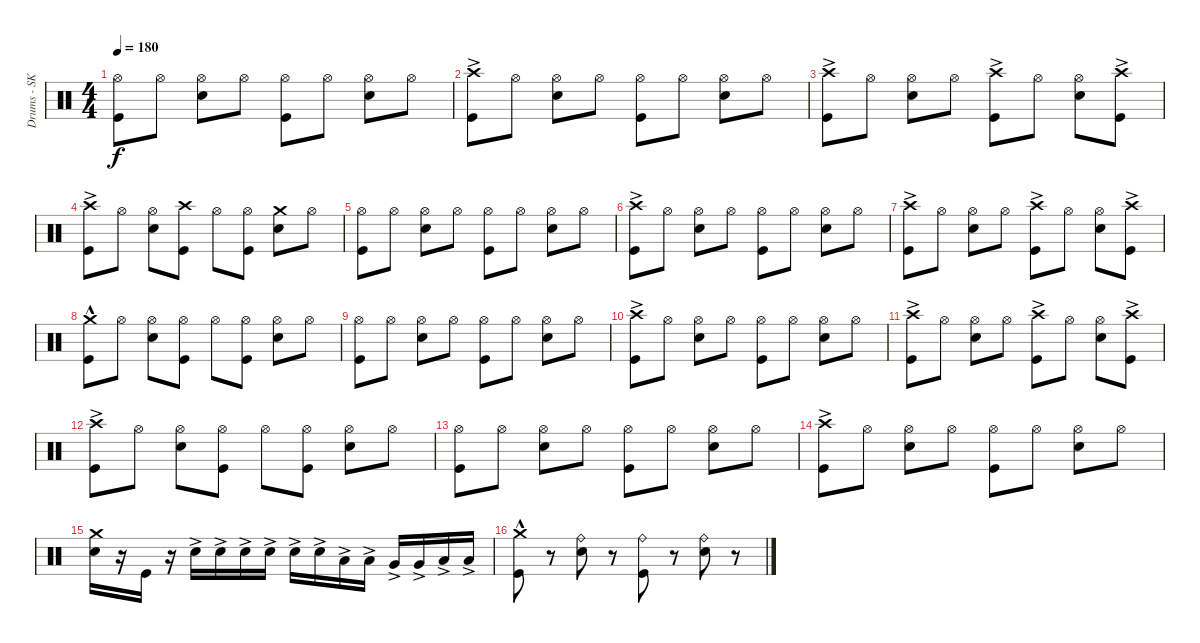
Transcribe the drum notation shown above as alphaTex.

\track ("Drums - SK" "Drums - SK") {instrument percussion}
\staff {score}
\articulation defaults
\ts (4 4)
\tempo 180
\clef neutral
\ks c
("Hi-Hat (open)" "Kick (hit)").8{dy f} "Hi-Hat (open)".8 ("Hi-Hat (open)" "Snare (hit) 2").8 "Hi-Hat (open)".8 ("Hi-Hat (open)" "Kick (hit)").8 "Hi-Hat (open)".8 ("Hi-Hat (open)" "Snare (hit) 2").8 "Hi-Hat (open)".8 |
("Kick (hit)"{ac} "Crash high (hit)"{ac}).8 "Hi-Hat (open)".8 ("Hi-Hat (open)" "Snare (hit) 2").8 "Hi-Hat (open)".8 ("Hi-Hat (open)" "Kick (hit)").8 "Hi-Hat (open)".8 ("Hi-Hat (open)" "Snare (hit) 2").8 "Hi-Hat (open)".8 |
("Kick (hit)"{ac} "Crash high (hit)"{ac}).8 "Hi-Hat (open)".8 ("Hi-Hat (open)" "Snare (hit) 2").8 "Hi-Hat (open)".8 ("Kick (hit)"{ac} "Crash high (hit)"{ac}).8 "Hi-Hat (open)".8 ("Hi-Hat (open)" "Snare (hit) 2").8 ("Kick (hit)"{ac} "Crash high (hit)"{ac}).8 |
("Crash high (hit)"{ac} "Kick (hit)"{ac}).8 "Hi-Hat (open)".8 ("Hi-Hat (open)" "Snare (hit) 2").8 ("Kick (hit)" "Crash high (hit)").8 "Hi-Hat (open)".8 ("Kick (hit)" "Hi-Hat (open)").8 ("Snare (hit) 2" "Crash medium (hit)").8 "Hi-Hat (open)".8 |
("Hi-Hat (open)" "Kick (hit)").8 "Hi-Hat (open)".8 ("Hi-Hat (open)" "Snare (hit) 2").8 "Hi-Hat (open)".8 ("Hi-Hat (open)" "Kick (hit)").8 "Hi-Hat (open)".8 ("Hi-Hat (open)" "Snare (hit) 2").8 "Hi-Hat (open)".8 |
("Kick (hit)"{ac} "Crash high (hit)"{ac}).8 "Hi-Hat (open)".8 ("Hi-Hat (open)" "Snare (hit) 2").8 "Hi-Hat (open)".8 ("Hi-Hat (open)" "Kick (hit)").8 "Hi-Hat (open)".8 ("Hi-Hat (open)" "Snare (hit) 2").8 "Hi-Hat (open)".8 |
("Kick (hit)"{ac} "Crash high (hit)"{ac}).8 "Hi-Hat (open)".8 ("Hi-Hat (open)" "Snare (hit) 2").8 "Hi-Hat (open)".8 ("Kick (hit)"{ac} "Crash high (hit)"{ac}).8 "Hi-Hat (open)".8 ("Hi-Hat (open)" "Snare (hit) 2").8 ("Kick (hit)"{ac} "Crash high (hit)"{ac}).8 |
("Kick (hit)"{hac} "Crash medium (hit)"{hac}).8 "Hi-Hat (open)".8 ("Hi-Hat (open)" "Snare (hit) 2").8 ("Kick (hit)" "Hi-Hat (open)").8 "Hi-Hat (open)".8 ("Kick (hit)" "Hi-Hat (open)").8 ("Hi-Hat (open)" "Snare (hit) 2").8 "Hi-Hat (open)".8 |
("Hi-Hat (open)" "Kick (hit)").8 "Hi-Hat (open)".8 ("Hi-Hat (open)" "Snare (hit) 2").8 "Hi-Hat (open)".8 ("Hi-Hat (open)" "Kick (hit)").8 "Hi-Hat (open)".8 ("Hi-Hat (open)" "Snare (hit) 2").8 "Hi-Hat (open)".8 |
("Kick (hit)"{ac} "Crash high (hit)"{ac}).8 "Hi-Hat (open)".8 ("Hi-Hat (open)" "Snare (hit) 2").8 "Hi-Hat (open)".8 ("Hi-Hat (open)" "Kick (hit)").8 "Hi-Hat (open)".8 ("Hi-Hat (open)" "Snare (hit) 2").8 "Hi-Hat (open)".8 |
("Kick (hit)"{ac} "Crash high (hit)"{ac}).8 "Hi-Hat (open)".8 ("Hi-Hat (open)" "Snare (hit) 2").8 "Hi-Hat (open)".8 ("Kick (hit)"{ac} "Crash high (hit)"{ac}).8 "Hi-Hat (open)".8 ("Hi-Hat (open)" "Snare (hit) 2").8 ("Kick (hit)"{ac} "Crash high (hit)"{ac}).8 |
("Crash high (hit)"{ac} "Kick (hit)"{ac}).8 "Hi-Hat (open)".8 ("Hi-Hat (open)" "Snare (hit) 2").8 ("Kick (hit)" "Hi-Hat (open)").8 "Hi-Hat (open)".8 ("Kick (hit)" "Hi-Hat (open)").8 ("Hi-Hat (open)" "Snare (hit) 2").8 "Hi-Hat (open)".8 |
("Hi-Hat (open)" "Kick (hit)").8 "Hi-Hat (open)".8 ("Hi-Hat (open)" "Snare (hit) 2").8 "Hi-Hat (open)".8 ("Hi-Hat (open)" "Kick (hit)").8 "Hi-Hat (open)".8 ("Hi-Hat (open)" "Snare (hit) 2").8 "Hi-Hat (open)".8 |
("Kick (hit)"{ac} "Crash high (hit)"{ac}).8 "Hi-Hat (open)".8 ("Hi-Hat (open)" "Snare (hit) 2").8 "Hi-Hat (open)".8 ("Hi-Hat (open)" "Kick (hit)").8 "Hi-Hat (open)".8 ("Hi-Hat (open)" "Snare (hit) 2").8 "Hi-Hat (open)".8 |
("Snare (hit) 2" "Crash medium (hit)").16 r.16 "Kick (hit)".16 r.16 "Snare (hit) 2"{ac}.16 "Snare (hit) 2"{ac}.16 "Snare (hit) 2"{ac}.16 "Snare (hit) 2"{ac}.16 "Snare (hit) 2"{ac}.16 "Snare (hit) 2"{ac}.16 "Low Tom (hit)"{ac}.16 "Low Tom (hit)"{ac}.16 "Very Low Tom (hit)"{ac}.16 "Very Low Tom (hit)"{ac}.16 "Low Floor Tom (hit)"{ac}.16 "Low Floor Tom (hit)"{ac}.16 |
("Crash medium (hit)"{hac} "Kick (hit)"{hac}).8 r.8 ("Ride (bell)" "Snare (hit) 2").8 r.8 ("Ride (bell)" "Kick (hit)").8 r.8 ("Ride (bell)" "Snare (hit) 2").8 r.8
